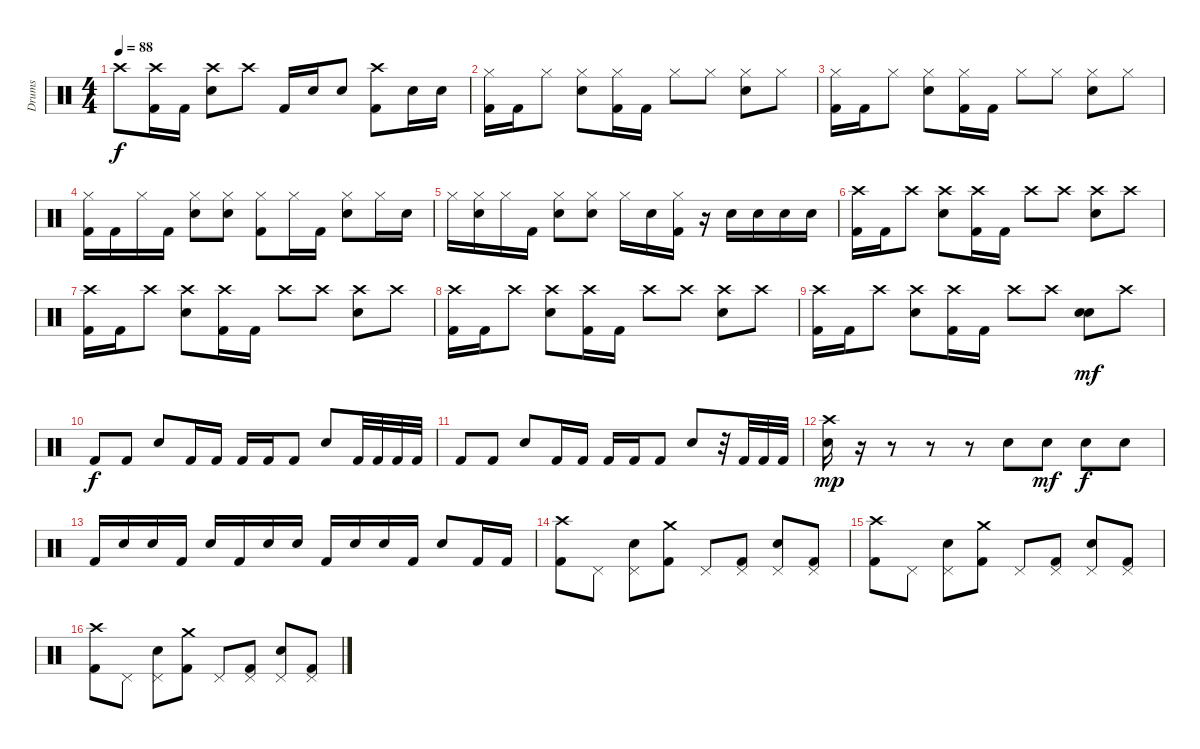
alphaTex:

\track ("Drums" "Drums") {instrument percussion}
\staff {score}
\articulation defaults
\ts (4 4)
\tempo 88
\clef neutral
\ks c "Crash high (hit)".8{dy f}
("Crash high (hit)" "Kick (hit) 2").16 "Kick (hit) 2".16 ("Crash high (hit)" "Electric Snare (hit)").8 "Crash high (hit)".8 "Kick (hit) 2".16 "Electric Snare (hit)".16 "Electric Snare (hit)".8 ("Crash high (hit)" "Kick (hit) 2").8 "Electric Snare (hit)".16 "Electric Snare (hit)".16 |
("Hi-Hat (closed)" "Kick (hit) 2").16 "Kick (hit) 2".16 "Hi-Hat (closed)".8 ("Hi-Hat (closed)" "Electric Snare (hit)").8 ("Hi-Hat (closed)" "Kick (hit) 2").16 "Kick (hit) 2".16 "Hi-Hat (closed)".8 "Hi-Hat (closed)".8 ("Hi-Hat (closed)" "Electric Snare (hit)").8 "Hi-Hat (closed)".8 |
("Hi-Hat (closed)" "Kick (hit) 2").16 "Kick (hit) 2".16 "Hi-Hat (closed)".8 ("Hi-Hat (closed)" "Electric Snare (hit)").8 ("Hi-Hat (closed)" "Kick (hit) 2").16 "Kick (hit) 2".16 "Hi-Hat (closed)".8 "Hi-Hat (closed)".8 ("Hi-Hat (closed)" "Electric Snare (hit)").8 "Hi-Hat (closed)".8 |
("Hi-Hat (closed)" "Kick (hit) 2").16 "Kick (hit) 2".16 "Hi-Hat (closed)".16 "Kick (hit) 2".16 ("Hi-Hat (closed)" "Electric Snare (hit)").8 ("Hi-Hat (closed)" "Electric Snare (hit)").8 ("Hi-Hat (closed)" "Kick (hit) 2").8 "Hi-Hat (closed)".16 "Kick (hit) 2".16 ("Hi-Hat (closed)" "Electric Snare (hit)").8 "Hi-Hat (closed)".16 "Electric Snare (hit)".16 |
"Hi-Hat (closed)".16 ("Hi-Hat (closed)" "Electric Snare (hit)").16 "Hi-Hat (closed)".16 "Kick (hit) 2".16 ("Hi-Hat (closed)" "Electric Snare (hit)").8 ("Hi-Hat (closed)" "Electric Snare (hit)").8 "Hi-Hat (closed)".16 "Electric Snare (hit)".16 ("Hi-Hat (closed)" "Kick (hit) 2").16 r.16 "Electric Snare (hit)".16 "Electric Snare (hit)".16 "Electric Snare (hit)".16 "Electric Snare (hit)".16 |
("Crash high (hit)" "Kick (hit) 2").16 "Kick (hit) 2".16 "Crash high (hit)".8 ("Crash high (hit)" "Electric Snare (hit)").8 ("Crash high (hit)" "Kick (hit) 2").16 "Kick (hit) 2".16 "Crash high (hit)".8 "Crash high (hit)".8 ("Crash high (hit)" "Electric Snare (hit)").8 "Crash high (hit)".8 |
("Crash high (hit)" "Kick (hit) 2").16 "Kick (hit) 2".16 "Crash high (hit)".8 ("Crash high (hit)" "Electric Snare (hit)").8 ("Crash high (hit)" "Kick (hit) 2").16 "Kick (hit) 2".16 "Crash high (hit)".8 "Crash high (hit)".8 ("Crash high (hit)" "Electric Snare (hit)").8 "Crash high (hit)".8 |
("Crash high (hit)" "Kick (hit) 2").16 "Kick (hit) 2".16 "Crash high (hit)".8 ("Crash high (hit)" "Electric Snare (hit)").8 ("Crash high (hit)" "Kick (hit) 2").16 "Kick (hit) 2".16 "Crash high (hit)".8 "Crash high (hit)".8 ("Crash high (hit)" "Electric Snare (hit)").8 "Crash high (hit)".8 |
("Crash high (hit)" "Kick (hit) 2").16 "Kick (hit) 2".16 "Crash high (hit)".8 ("Crash high (hit)" "Electric Snare (hit)").8 ("Crash high (hit)" "Kick (hit) 2").16 "Kick (hit) 2".16 "Crash high (hit)".8 "Crash high (hit)".8 ("Electric Snare (hit)" "Electric Snare (hit)").8{dy mf} "Crash high (hit)".8 |
"Kick (hit) 2".8{dy f} "Kick (hit) 2".8 "Electric Snare (hit)".8 "Kick (hit) 2".16 "Kick (hit) 2".16 "Kick (hit) 2".16 "Kick (hit) 2".16 "Kick (hit) 2".8 "Electric Snare (hit)".8 "Kick (hit) 2".32 "Kick (hit) 2".32 "Kick (hit) 2".32 "Kick (hit) 2".32 |
"Kick (hit) 2".8 "Kick (hit) 2".8 "Electric Snare (hit)".8 "Kick (hit) 2".16 "Kick (hit) 2".16 "Kick (hit) 2".16 "Kick (hit) 2".16 "Kick (hit) 2".8 "Electric Snare (hit)".8 r.32 "Kick (hit) 2".32 "Kick (hit) 2".32 "Kick (hit) 2".32 |
("Crash high (hit)" "Electric Snare (hit)").16{dy mp} r.16 r.8 r.8 r.8 "Electric Snare (hit)".8 "Electric Snare (hit)".8{dy mf} "Electric Snare (hit)".8{dy f} "Electric Snare (hit)".8 |
"Kick (hit) 2".16 "Electric Snare (hit)".16 "Electric Snare (hit)".16 "Kick (hit) 2".16 "Electric Snare (hit)".16 "Kick (hit) 2".16 "Electric Snare (hit)".16 "Electric Snare (hit)".16 "Kick (hit) 2".16 "Electric Snare (hit)".16 "Electric Snare (hit)".16 "Kick (hit) 2".16 "Electric Snare (hit)".8 "Kick (hit) 2".16 "Kick (hit) 2".16 |
("Crash high (hit)" "Kick (hit) 2").8 "Pedal Hi-Hat (hit)".8 ("Pedal Hi-Hat (hit)" "Electric Snare (hit)").8 ("Crash medium (hit)" "Kick (hit) 2").8 "Pedal Hi-Hat (hit)".8 ("Pedal Hi-Hat (hit)" "Kick (hit) 2").8 ("Pedal Hi-Hat (hit)" "Electric Snare (hit)").8 ("Pedal Hi-Hat (hit)" "Kick (hit) 2").8 |
("Crash high (hit)" "Kick (hit) 2").8 "Pedal Hi-Hat (hit)".8 ("Pedal Hi-Hat (hit)" "Electric Snare (hit)").8 ("Crash medium (hit)" "Kick (hit) 2").8 "Pedal Hi-Hat (hit)".8 ("Pedal Hi-Hat (hit)" "Kick (hit) 2").8 ("Pedal Hi-Hat (hit)" "Electric Snare (hit)").8 ("Pedal Hi-Hat (hit)" "Kick (hit) 2").8 |
("Crash high (hit)" "Kick (hit) 2").8 "Pedal Hi-Hat (hit)".8 ("Pedal Hi-Hat (hit)" "Electric Snare (hit)").8 ("Crash medium (hit)" "Kick (hit) 2").8 "Pedal Hi-Hat (hit)".8 ("Pedal Hi-Hat (hit)" "Kick (hit) 2").8 ("Pedal Hi-Hat (hit)" "Electric Snare (hit)").8 ("Pedal Hi-Hat (hit)" "Kick (hit) 2").8
